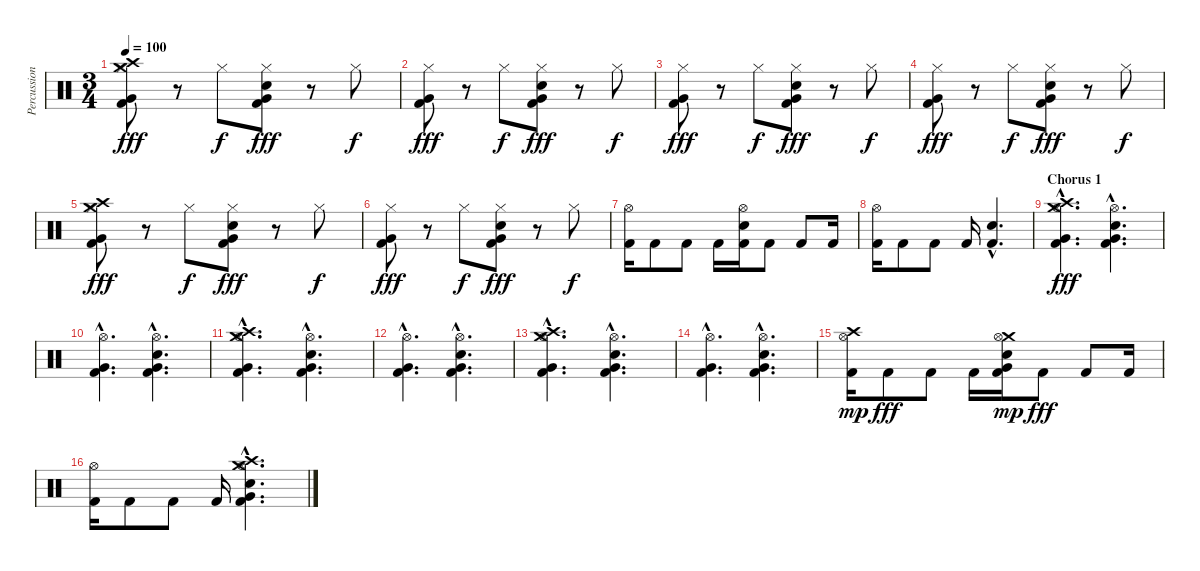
\track ("Percussion" "Percussion") {instrument percussion}
\staff {score}
\articulation defaults
\ts (3 4)
\tempo 100
\clef neutral
\ks c
("Very Low Tom (hit)" "Kick (hit) 2" "Crash medium (hit)" "Crash high (hit)" "Hi-Hat (closed)").8{dy fff} r.8 "Hi-Hat (closed)".8{dy f} ("Snare (hit) 2" "Kick (hit) 2" "Very Low Tom (hit)" "Hi-Hat (closed)").8{dy fff} r.8 "Hi-Hat (closed)".8{dy f} |
("Very Low Tom (hit)" "Kick (hit) 2" "Hi-Hat (closed)").8{dy fff} r.8 "Hi-Hat (closed)".8{dy f} ("Snare (hit) 2" "Kick (hit) 2" "Very Low Tom (hit)" "Hi-Hat (closed)").8{dy fff} r.8 "Hi-Hat (closed)".8{dy f} |
("Very Low Tom (hit)" "Kick (hit) 2" "Hi-Hat (closed)").8{dy fff} r.8 "Hi-Hat (closed)".8{dy f} ("Snare (hit) 2" "Kick (hit) 2" "Very Low Tom (hit)" "Hi-Hat (closed)").8{dy fff} r.8 "Hi-Hat (closed)".8{dy f} |
("Very Low Tom (hit)" "Kick (hit) 2" "Hi-Hat (closed)").8{dy fff} r.8 "Hi-Hat (closed)".8{dy f} ("Snare (hit) 2" "Kick (hit) 2" "Very Low Tom (hit)" "Hi-Hat (closed)").8{dy fff} r.8 "Hi-Hat (closed)".8{dy f} |
("Very Low Tom (hit)" "Kick (hit) 2" "Crash medium (hit)" "Crash high (hit)" "Hi-Hat (closed)").8{dy fff} r.8 "Hi-Hat (closed)".8{dy f} ("Snare (hit) 2" "Kick (hit) 2" "Very Low Tom (hit)" "Hi-Hat (closed)").8{dy fff} r.8 "Hi-Hat (closed)".8{dy f} |
("Very Low Tom (hit)" "Kick (hit) 2" "Hi-Hat (closed)").8{dy fff} r.8 "Hi-Hat (closed)".8{dy f} ("Snare (hit) 2" "Kick (hit) 2" "Very Low Tom (hit)" "Hi-Hat (closed)").8{dy fff} r.8 "Hi-Hat (closed)".8{dy f} |
("Kick (hit) 2" "Hi-Hat (open)").16 "Kick (hit) 2".8 "Kick (hit) 2".8 "Kick (hit) 2".16 ("Snare (hit) 2" "Kick (hit) 2" "Hi-Hat (open)").16 "Kick (hit) 2".8 "Kick (hit) 2".8 "Kick (hit) 2".16 |
("Kick (hit) 2" "Hi-Hat (open)").16 "Kick (hit) 2".8 "Kick (hit) 2".8 "Kick (hit) 2".16 ("Snare (hit) 2"{hac} "Kick (hit) 2"{hac}).4{d} |
\section ("" "Chorus 1")
("Kick (hit) 2"{hac} "Very Low Tom (hit)"{hac} "Crash medium (hit)"{hac} "Crash high (hit)"{hac} "Hi-Hat (open)"{hac}).4{d dy fff} ("Snare (hit) 2"{hac} "Kick (hit) 2"{hac} "Very Low Tom (hit)"{hac} "Hi-Hat (open)"{hac}).4{d} |
("Kick (hit) 2"{hac} "Very Low Tom (hit)"{hac} "Hi-Hat (open)"{hac}).4{d} ("Snare (hit) 2"{hac} "Kick (hit) 2"{hac} "Very Low Tom (hit)"{hac} "Hi-Hat (open)"{hac}).4{d} |
("Kick (hit) 2"{hac} "Very Low Tom (hit)"{hac} "Crash medium (hit)"{hac} "Crash high (hit)"{hac} "Hi-Hat (open)"{hac}).4{d} ("Snare (hit) 2"{hac} "Kick (hit) 2"{hac} "Very Low Tom (hit)"{hac} "Hi-Hat (open)"{hac}).4{d} |
("Kick (hit) 2"{hac} "Very Low Tom (hit)"{hac} "Hi-Hat (open)"{hac}).4{d} ("Snare (hit) 2"{hac} "Kick (hit) 2"{hac} "Very Low Tom (hit)"{hac} "Hi-Hat (open)"{hac}).4{d} |
("Kick (hit) 2"{hac} "Very Low Tom (hit)"{hac} "Crash medium (hit)"{hac} "Crash high (hit)"{hac} "Hi-Hat (open)"{hac}).4{d} ("Snare (hit) 2"{hac} "Kick (hit) 2"{hac} "Very Low Tom (hit)"{hac} "Hi-Hat (open)"{hac}).4{d} |
("Kick (hit) 2"{hac} "Very Low Tom (hit)"{hac} "Hi-Hat (open)"{hac}).4{d} ("Snare (hit) 2"{hac} "Kick (hit) 2"{hac} "Very Low Tom (hit)"{hac} "Hi-Hat (open)"{hac}).4{d} |
("Kick (hit) 2" "Crash high (hit)" "Hi-Hat (open)").16{dy mp} "Kick (hit) 2".8{dy fff} "Kick (hit) 2".8 "Kick (hit) 2".16 ("Snare (hit) 2" "Kick (hit) 2" "Very Low Tom (hit)" "Crash medium (hit)" "Hi-Hat (open)").16{dy mp} "Kick (hit) 2".8{dy fff} "Kick (hit) 2".8 "Kick (hit) 2".16 |
("Kick (hit) 2" "Hi-Hat (open)").16 "Kick (hit) 2".8 "Kick (hit) 2".8 "Kick (hit) 2".16 ("Snare (hit) 2"{hac} "Kick (hit) 2"{hac} "Very Low Tom (hit)"{hac} "Crash medium (hit)"{hac} "Crash high (hit)"{hac} "Hi-Hat (open)"{hac}).4{d}
